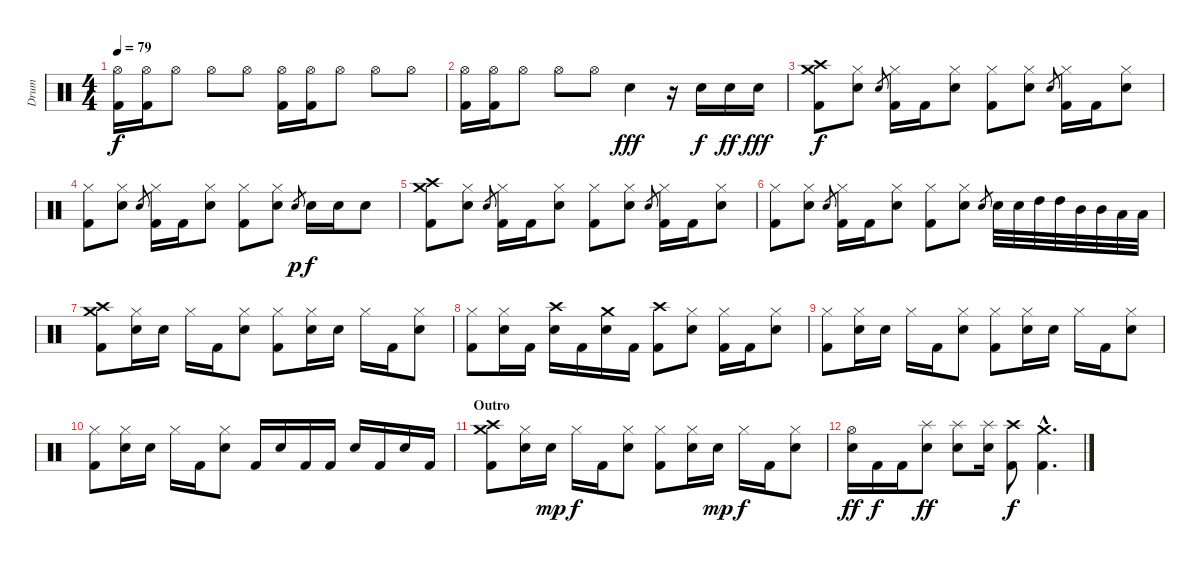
\track ("Drum" "Drum") {instrument percussion}
\staff {score}
\articulation defaults
\ts (4 4)
\tempo 79
\clef neutral
\ks c
("Hi-Hat (open)" "Kick (hit) 2").16{dy f} ("Hi-Hat (open)" "Kick (hit) 2").16 "Hi-Hat (open)".8 "Hi-Hat (open)".8 "Hi-Hat (open)".8 ("Hi-Hat (open)" "Kick (hit) 2").16 ("Hi-Hat (open)" "Kick (hit) 2").16 "Hi-Hat (open)".8 "Hi-Hat (open)".8 "Hi-Hat (open)".8 |
("Hi-Hat (open)" "Kick (hit) 2").16 ("Hi-Hat (open)" "Kick (hit) 2").16 "Hi-Hat (open)".8 "Hi-Hat (open)".8 "Hi-Hat (open)".8 "Electric Snare (hit)".4{dy fff} r.16 "Electric Snare (hit)".16{dy f} "Electric Snare (hit)".16{dy ff} "Electric Snare (hit)".16{dy fff} |
\section ("" "")
("Kick (hit) 2" "Crash high (hit)" "Crash medium (hit)").8{dy f} ("Hi-Hat (closed)" "Electric Snare (hit)").8 "Electric Snare (hit)".8{gr} ("Hi-Hat (closed)" "Kick (hit) 2").16 "Kick (hit) 2".16 ("Hi-Hat (closed)" "Electric Snare (hit)").8 ("Hi-Hat (closed)" "Kick (hit) 2").8 ("Hi-Hat (closed)" "Electric Snare (hit)").8 "Electric Snare (hit)".8{gr} ("Hi-Hat (closed)" "Kick (hit) 2").16 "Kick (hit) 2".16 ("Hi-Hat (closed)" "Electric Snare (hit)").8 |
("Hi-Hat (closed)" "Kick (hit) 2").8 ("Hi-Hat (closed)" "Electric Snare (hit)").8 "Electric Snare (hit)".8{gr} ("Hi-Hat (closed)" "Kick (hit) 2").16 "Kick (hit) 2".16 ("Hi-Hat (closed)" "Electric Snare (hit)").8 ("Hi-Hat (closed)" "Kick (hit) 2").8 ("Hi-Hat (closed)" "Electric Snare (hit)").8 "Electric Snare (hit)".8{gr dy p} "Electric Snare (hit)".16{dy f} "Electric Snare (hit)".16 "Electric Snare (hit)".8 |
("Kick (hit) 2" "Crash high (hit)" "Crash medium (hit)").8 ("Hi-Hat (closed)" "Electric Snare (hit)").8 "Electric Snare (hit)".8{gr} ("Hi-Hat (closed)" "Kick (hit) 2").16 "Kick (hit) 2".16 ("Hi-Hat (closed)" "Electric Snare (hit)").8 ("Hi-Hat (closed)" "Kick (hit) 2").8 ("Hi-Hat (closed)" "Electric Snare (hit)").8 "Electric Snare (hit)".8{gr} ("Hi-Hat (closed)" "Kick (hit) 2").16 "Kick (hit) 2".16 ("Hi-Hat (closed)" "Electric Snare (hit)").8 |
("Hi-Hat (closed)" "Kick (hit) 2").8 ("Hi-Hat (closed)" "Electric Snare (hit)").8 "Electric Snare (hit)".8{gr} ("Hi-Hat (closed)" "Kick (hit) 2").16 "Kick (hit) 2".16 ("Hi-Hat (closed)" "Electric Snare (hit)").8 ("Hi-Hat (closed)" "Kick (hit) 2").8 ("Hi-Hat (closed)" "Electric Snare (hit)").8 "Electric Snare (hit)".8{gr} "Electric Snare (hit)".32 "Electric Snare (hit)".32 "High Tom (hit)".32 "High Tom (hit)".32 "Mid Tom (hit)".32 "Mid Tom (hit)".32 "Low Tom (hit)".32 "Low Tom (hit)".32 |
\section ("" "")
("Kick (hit) 2" "Crash high (hit)" "Crash medium (hit)").8 ("Hi-Hat (closed)" "Electric Snare (hit)").16 "Electric Snare (hit)".16 "Hi-Hat (closed)".16 "Kick (hit) 2".16 ("Hi-Hat (closed)" "Electric Snare (hit)").8 ("Hi-Hat (closed)" "Kick (hit) 2").8 ("Hi-Hat (closed)" "Electric Snare (hit)").16 "Electric Snare (hit)".16 "Hi-Hat (closed)".16 "Kick (hit) 2".16 ("Hi-Hat (closed)" "Electric Snare (hit)").8 |
("Hi-Hat (closed)" "Kick (hit) 2").8 ("Hi-Hat (closed)" "Electric Snare (hit)").16 "Kick (hit) 2".16 ("Electric Snare (hit)" "Crash high (hit)").16 "Kick (hit) 2".16 ("Electric Snare (hit)" "Crash medium (hit)").16 "Kick (hit) 2".16 ("Kick (hit) 2" "Crash high (hit)").8 ("Hi-Hat (closed)" "Electric Snare (hit)").8 ("Hi-Hat (closed)" "Kick (hit) 2").16 "Kick (hit) 2".16 ("Hi-Hat (closed)" "Electric Snare (hit)").8 |
("Hi-Hat (closed)" "Kick (hit) 2").8 ("Hi-Hat (closed)" "Electric Snare (hit)").16 "Electric Snare (hit)".16 "Hi-Hat (closed)".16 "Kick (hit) 2".16 ("Hi-Hat (closed)" "Electric Snare (hit)").8 ("Hi-Hat (closed)" "Kick (hit) 2").8 ("Hi-Hat (closed)" "Electric Snare (hit)").16 "Electric Snare (hit)".16 "Hi-Hat (closed)".16 "Kick (hit) 2".16 ("Hi-Hat (closed)" "Electric Snare (hit)").8 |
("Hi-Hat (closed)" "Kick (hit) 2").8 ("Hi-Hat (closed)" "Electric Snare (hit)").16 "Electric Snare (hit)".16 "Hi-Hat (closed)".16 "Kick (hit) 2".16 ("Hi-Hat (closed)" "Electric Snare (hit)").8 "Kick (hit) 2".16 "Electric Snare (hit)".16 "Kick (hit) 2".16 "Kick (hit) 2".16 "Electric Snare (hit)".16 "Kick (hit) 2".16 "Electric Snare (hit)".16 "Kick (hit) 2".16 |
\section ("" "Outro")
("Kick (hit) 2" "Crash high (hit)" "Crash medium (hit)").8 ("Hi-Hat (closed)" "Electric Snare (hit)").16 "Electric Snare (hit)".16{dy mp} "Hi-Hat (closed)".16{dy f} "Kick (hit) 2".16 ("Hi-Hat (closed)" "Electric Snare (hit)").8 ("Hi-Hat (closed)" "Kick (hit) 2").8 ("Hi-Hat (closed)" "Electric Snare (hit)").16 "Electric Snare (hit)".16{dy mp} "Hi-Hat (closed)".16{dy f} "Kick (hit) 2".16 ("Hi-Hat (closed)" "Electric Snare (hit)").8 |
("Hi-Hat (open)" "Electric Snare (hit)").16{dy ff} "Kick (hit) 2".16{dy f} "Kick (hit) 2".16 ("Splash (hit)" "Electric Snare (hit)").8{dy ff} ("Splash (hit)" "Electric Snare (hit)").8 ("Splash (hit)" "Electric Snare (hit)").16 ("Kick (hit) 2" "Crash high (hit)").8{dy f} ("Kick (hit) 2"{hac} "Crash medium (hit)"{hac}).4{d}
